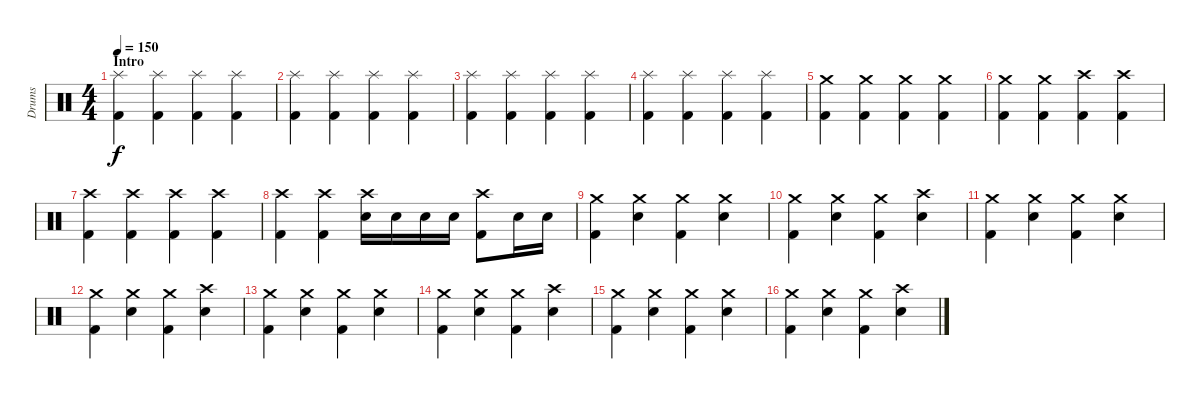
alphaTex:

\track ("Drums" "Drums") {instrument percussion}
\staff {score}
\articulation defaults
\ts (4 4)
\section ("" "Intro")
\tempo 150
\clef neutral
\ks c
("Splash (hit)" "Kick (hit) 2").4{dy f} ("Splash (hit)" "Kick (hit) 2").4 ("Splash (hit)" "Kick (hit) 2").4 ("Splash (hit)" "Kick (hit) 2").4 |
("Splash (hit)" "Kick (hit) 2").4 ("Splash (hit)" "Kick (hit) 2").4 ("Splash (hit)" "Kick (hit) 2").4 ("Splash (hit)" "Kick (hit) 2").4 |
("Splash (hit)" "Kick (hit) 2").4 ("Splash (hit)" "Kick (hit) 2").4 ("Splash (hit)" "Kick (hit) 2").4 ("Splash (hit)" "Kick (hit) 2").4 |
("Splash (hit)" "Kick (hit) 2").4 ("Splash (hit)" "Kick (hit) 2").4 ("Splash (hit)" "Kick (hit) 2").4 ("Splash (hit)" "Kick (hit) 2").4 |
("Crash medium (hit)" "Kick (hit) 2").4 ("Crash medium (hit)" "Kick (hit) 2").4 ("Crash medium (hit)" "Kick (hit) 2").4 ("Crash medium (hit)" "Kick (hit) 2").4 |
("Crash medium (hit)" "Kick (hit) 2").4 ("Crash medium (hit)" "Kick (hit) 2").4 ("Crash high (hit)" "Kick (hit) 2").4 ("Crash high (hit)" "Kick (hit) 2").4 |
("Crash high (hit)" "Kick (hit) 2").4 ("Crash high (hit)" "Kick (hit) 2").4 ("Crash high (hit)" "Kick (hit) 2").4 ("Crash high (hit)" "Kick (hit) 2").4 |
("Crash high (hit)" "Kick (hit) 2").4 ("Crash high (hit)" "Kick (hit) 2").4 ("Crash high (hit)" "Electric Snare (hit)").16 "Electric Snare (hit)".16 "Electric Snare (hit)".16 "Electric Snare (hit)".16 ("Crash high (hit)" "Kick (hit) 2").8 "Electric Snare (hit)".16 "Electric Snare (hit)".16 |
("Crash medium (hit)" "Kick (hit) 2").4 ("Crash medium (hit)" "Electric Snare (hit)").4 ("Crash medium (hit)" "Kick (hit) 2").4 ("Crash medium (hit)" "Electric Snare (hit)").4 |
("Crash medium (hit)" "Kick (hit) 2").4 ("Crash medium (hit)" "Electric Snare (hit)").4 ("Crash medium (hit)" "Kick (hit) 2").4 ("Crash high (hit)" "Electric Snare (hit)").4 |
("Crash medium (hit)" "Kick (hit) 2").4 ("Crash medium (hit)" "Electric Snare (hit)").4 ("Crash medium (hit)" "Kick (hit) 2").4 ("Crash medium (hit)" "Electric Snare (hit)").4 |
("Crash medium (hit)" "Kick (hit) 2").4 ("Crash medium (hit)" "Electric Snare (hit)").4 ("Crash medium (hit)" "Kick (hit) 2").4 ("Crash high (hit)" "Electric Snare (hit)").4 |
("Crash medium (hit)" "Kick (hit) 2").4 ("Crash medium (hit)" "Electric Snare (hit)").4 ("Crash medium (hit)" "Kick (hit) 2").4 ("Crash medium (hit)" "Electric Snare (hit)").4 |
("Crash medium (hit)" "Kick (hit) 2").4 ("Crash medium (hit)" "Electric Snare (hit)").4 ("Crash medium (hit)" "Kick (hit) 2").4 ("Crash high (hit)" "Electric Snare (hit)").4 |
("Crash medium (hit)" "Kick (hit) 2").4 ("Crash medium (hit)" "Electric Snare (hit)").4 ("Crash medium (hit)" "Kick (hit) 2").4 ("Crash medium (hit)" "Electric Snare (hit)").4 |
("Crash medium (hit)" "Kick (hit) 2").4 ("Crash medium (hit)" "Electric Snare (hit)").4 ("Crash medium (hit)" "Kick (hit) 2").4 ("Crash high (hit)" "Electric Snare (hit)").4
